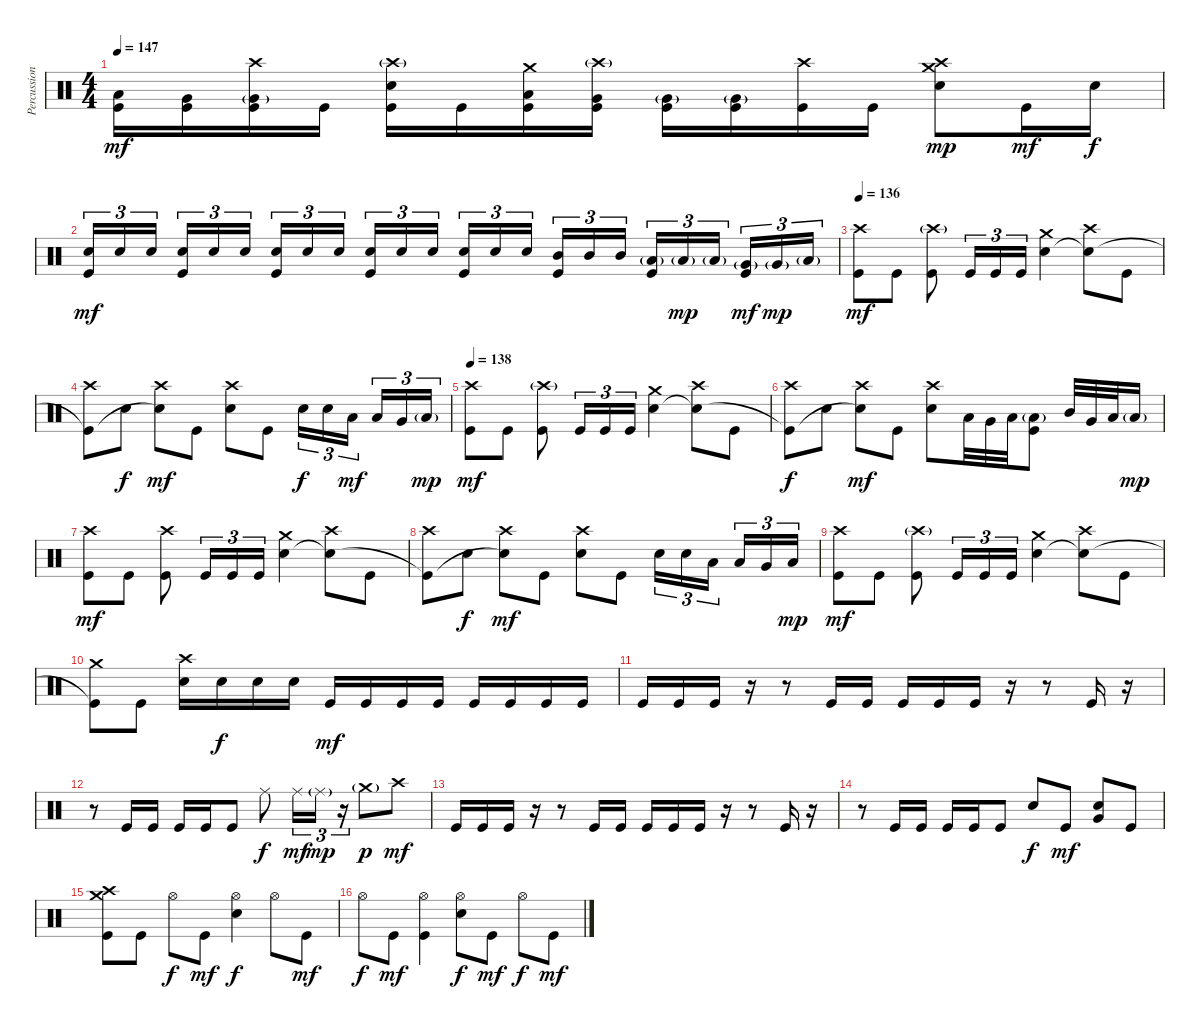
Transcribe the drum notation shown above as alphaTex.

\track ("Percussion" "Percussion") {instrument percussion}
\staff {score}
\articulation defaults
\ts (4 4)
\tempo 147
\clef neutral
\ks c
("Low Tom (hit)" "Kick (hit)").16{dy mf} ("Very Low Tom (hit)" "Kick (hit)").16 ("Crash high (hit)" "Very Low Tom (hit)"{g} "Kick (hit)").16 "Kick (hit)".16 ("Crash high (hit)"{g} "Electric Snare (hit)" "Kick (hit)").16 "Kick (hit)".16 ("Crash medium (hit)" "Low Tom (hit)" "Kick (hit)").16 ("Crash high (hit)"{g} "Very Low Tom (hit)" "Kick (hit)").16 ("Very Low Tom (hit)"{g} "Kick (hit)").16 ("Very Low Tom (hit)"{g} "Kick (hit)").16 ("Crash high (hit)" "Kick (hit)").16 "Kick (hit)".16 ("Crash medium (hit)" "Crash high (hit)" "Electric Snare (hit)").8{dy mp} "Kick (hit)".16{dy mf} "Electric Snare (hit)".16{dy f} |
("Electric Snare (hit)" "Kick (hit)").16{tu (3 2) dy mf} "Electric Snare (hit)".16{tu (3 2)} "Electric Snare (hit)".16{tu (3 2)} ("Electric Snare (hit)" "Kick (hit)").16{tu (3 2)} "Electric Snare (hit)".16{tu (3 2)} "Electric Snare (hit)".16{tu (3 2)} ("Electric Snare (hit)" "Kick (hit)").16{tu (3 2)} "Electric Snare (hit)".16{tu (3 2)} "Electric Snare (hit)".16{tu (3 2)} ("Electric Snare (hit)" "Kick (hit)").16{tu (3 2)} "Electric Snare (hit)".16{tu (3 2)} "Electric Snare (hit)".16{tu (3 2)} ("Electric Snare (hit)" "Kick (hit)").16{tu (3 2)} "Electric Snare (hit)".16{tu (3 2)} "Electric Snare (hit)".16{tu (3 2)} ("Mid Tom (hit)" "Kick (hit)").16{tu (3 2)} "Mid Tom (hit)".16{tu (3 2)} "Mid Tom (hit)".16{tu (3 2)} ("Low Tom (hit)"{g} "Kick (hit)").16{tu (3 2)} "Low Tom (hit)"{g}.16{tu (3 2) dy mp} "Low Tom (hit)"{g}.16{tu (3 2)} ("Very Low Tom (hit)"{g} "Kick (hit)").16{tu (3 2) dy mf} "Very Low Tom (hit)"{g}.16{tu (3 2) dy mp} "Low Floor Tom (hit)"{g}.16{tu (3 2)} |
\tempo 136
("Crash high (hit)" "Kick (hit)").8{dy mf} "Kick (hit)".8 ("Crash high (hit)"{g} "Kick (hit)").8 "Kick (hit)".16{tu (3 2)} "Kick (hit)".16{tu (3 2)} "Kick (hit)".16{tu (3 2)} ("Crash medium (hit)" "Electric Snare (hit)").4 ("Crash high (hit)" "Snare (hit)"{t}).8 "Kick (hit)".8 |
("Crash high (hit)" "Kick (hit)"{t}).8 "Electric Snare (hit)".8{dy f} ("Crash high (hit)" "Snare (hit)"{t}).8{dy mf} "Kick (hit)".8 ("Crash high (hit)" "Electric Snare (hit)").8 "Kick (hit)".8 "Electric Snare (hit)".16{tu (3 2) dy f} "Electric Snare (hit)".16{tu (3 2)} "Low Tom (hit)".16{tu (3 2) dy mf} "Low Tom (hit)".16{tu (3 2)} "Very Low Tom (hit)".16{tu (3 2)} "Low Floor Tom (hit)"{g}.16{tu (3 2) dy mp} |
\tempo 138
("Crash high (hit)" "Kick (hit)").8{dy mf} "Kick (hit)".8 ("Crash high (hit)"{g} "Kick (hit)").8 "Kick (hit)".16{tu (3 2)} "Kick (hit)".16{tu (3 2)} "Kick (hit)".16{tu (3 2)} ("Crash medium (hit)" "Electric Snare (hit)").4 ("Crash high (hit)" "Snare (hit)"{t}).8 "Kick (hit)".8 |
("Crash high (hit)" "Kick (hit)"{t}).8{dy f} "Electric Snare (hit)".8 ("Crash high (hit)" "Snare (hit)"{t}).8{dy mf} "Kick (hit)".8 ("Crash high (hit)" "Electric Snare (hit)").8 "Low Tom (hit)".32 "Very Low Tom (hit)".32 "Low Floor Tom (hit)".32 ("Low Floor Tom (hit)"{g} "Kick (hit)").8 "Mid Tom (hit)".32 "Very Low Tom (hit)".32 "Low Floor Tom (hit)".32 "Low Floor Tom (hit)"{g}.16{dy mp} |
("Crash high (hit)" "Kick (hit)").8{dy mf} "Kick (hit)".8 ("Crash high (hit)" "Kick (hit)").8 "Kick (hit)".16{tu (3 2)} "Kick (hit)".16{tu (3 2)} "Kick (hit)".16{tu (3 2)} ("Crash medium (hit)" "Electric Snare (hit)").4 ("Crash high (hit)" "Snare (hit)"{t}).8 "Kick (hit)".8 |
("Crash high (hit)" "Kick (hit)"{t}).8 "Electric Snare (hit)".8{dy f} ("Crash high (hit)" "Snare (hit)"{t}).8{dy mf} "Kick (hit)".8 ("Crash high (hit)" "Electric Snare (hit)").8 "Kick (hit)".8 "Electric Snare (hit)".16{tu (3 2)} "Electric Snare (hit)".16{tu (3 2)} "Low Tom (hit)".16{tu (3 2)} "Low Tom (hit)".16{tu (3 2)} "Very Low Tom (hit)".16{tu (3 2)} "Low Floor Tom (hit)".16{tu (3 2) dy mp} |
("Crash high (hit)" "Kick (hit)").8{dy mf} "Kick (hit)".8 ("Crash high (hit)"{g} "Kick (hit)").8 "Kick (hit)".16{tu (3 2)} "Kick (hit)".16{tu (3 2)} "Kick (hit)".16{tu (3 2)} ("Crash medium (hit)" "Electric Snare (hit)").4 ("Crash high (hit)" "Snare (hit)"{t}).8 "Kick (hit)".8 |
("Crash medium (hit)" "Kick (hit)"{t}).8 "Kick (hit)".8 ("Crash high (hit)" "Electric Snare (hit)").16 "Electric Snare (hit)".16{dy f} "Electric Snare (hit)".16 "Electric Snare (hit)".16 "Kick (hit)".16{dy mf} "Kick (hit)".16 "Kick (hit)".16 "Kick (hit)".16 "Kick (hit)".16 "Kick (hit)".16 "Kick (hit)".16 "Kick (hit)".16 |
"Kick (hit)".16 "Kick (hit)".16 "Kick (hit)".16 r.16 r.8 "Kick (hit)".16 "Kick (hit)".16 "Kick (hit)".16 "Kick (hit)".16 "Kick (hit)".16 r.16 r.8 "Kick (hit)".16 r.16 |
r.8 "Kick (hit)".16 "Kick (hit)".16 "Kick (hit)".16 "Kick (hit)".16 "Kick (hit)".8 "Ride (middle)".8{dy f} "Ride (middle)".16{tu (3 2) dy mf} "Ride (middle)"{g}.16{tu (3 2) dy mp} r.16{tu (3 2)} "Crash medium (hit)"{g}.8{dy p} "Crash high (hit)".8{dy mf} |
"Kick (hit)".16 "Kick (hit)".16 "Kick (hit)".16 r.16 r.8 "Kick (hit)".16 "Kick (hit)".16 "Kick (hit)".16 "Kick (hit)".16 "Kick (hit)".16 r.16 r.8 "Kick (hit)".16 r.16 |
r.8 "Kick (hit)".16 "Kick (hit)".16 "Kick (hit)".16 "Kick (hit)".16 "Kick (hit)".8 "Electric Snare (hit)".8{dy f} "Kick (hit)".8{dy mf} ("Very Low Tom (hit)" "Electric Snare (hit)").8 "Kick (hit)".8 |
("Crash medium (hit)" "Crash high (hit)" "Kick (hit)").8 "Kick (hit)".8 "Hi-Hat (open)".8{dy f} "Kick (hit)".8{dy mf} ("Hi-Hat (open)" "Electric Snare (hit)").4{dy f} "Hi-Hat (open)".8 "Kick (hit)".8{dy mf} |
"Hi-Hat (open)".8{dy f} "Kick (hit)".8{dy mf} ("Hi-Hat (open)" "Kick (hit)").4 ("Hi-Hat (open)" "Electric Snare (hit)").8{dy f} "Kick (hit)".8{dy mf} "Hi-Hat (open)".8{dy f} "Kick (hit)".8{dy mf}
